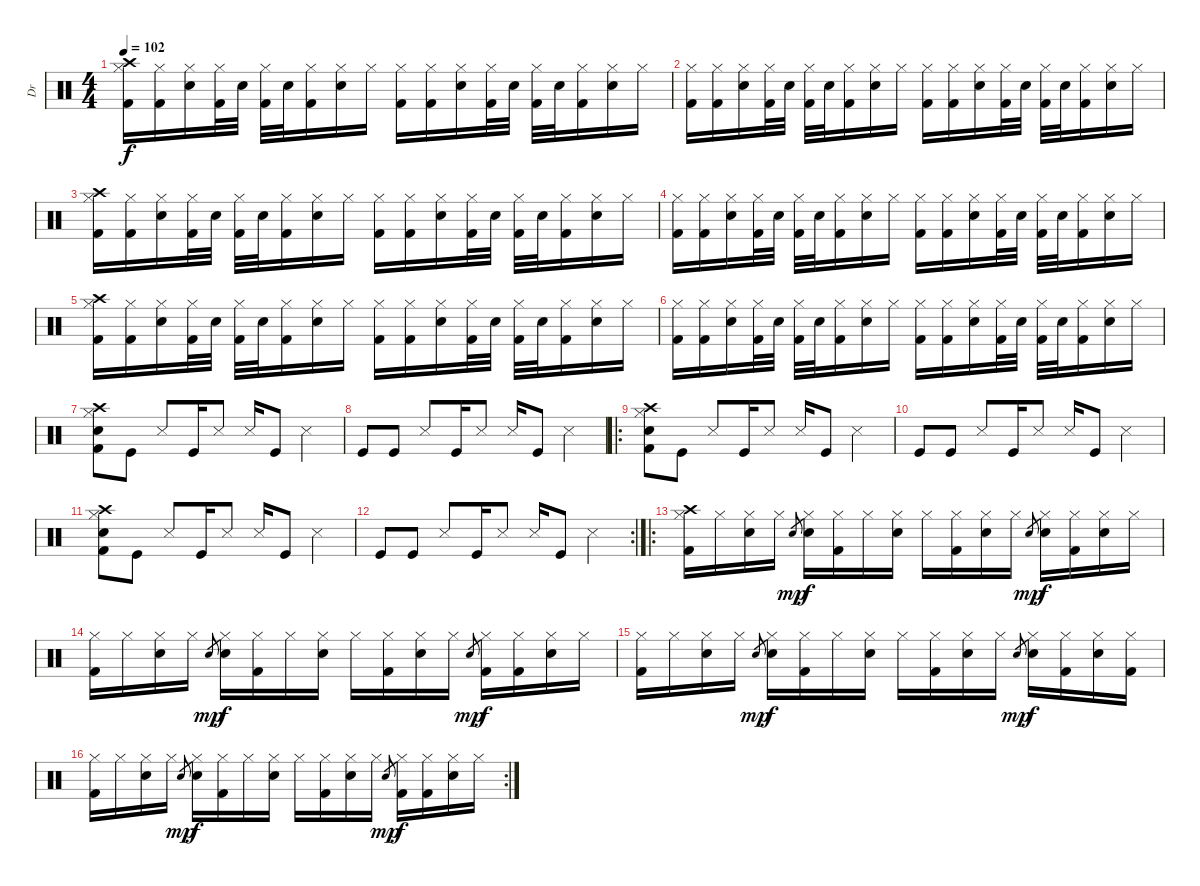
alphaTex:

\track ("Dr" "Dr") {instrument percussion}
\staff {score}
\articulation defaults
\ts (4 4)
\tempo 102
\clef neutral
\ks c
("Crash high (hit)" "Hi-Hat (closed)" "Kick (hit) 2").16{dy f} ("Hi-Hat (closed)" "Kick (hit) 2").16 ("Hi-Hat (closed)" "Electric Snare (hit)").16 ("Hi-Hat (closed)" "Kick (hit) 2").32 "Electric Snare (hit)".32 ("Hi-Hat (closed)" "Kick (hit) 2").32 "Electric Snare (hit)".32 ("Hi-Hat (closed)" "Kick (hit) 2").16 ("Hi-Hat (closed)" "Electric Snare (hit)").16 "Hi-Hat (closed)".16 ("Hi-Hat (closed)" "Kick (hit) 2").16 ("Hi-Hat (closed)" "Kick (hit) 2").16 ("Hi-Hat (closed)" "Electric Snare (hit)").16 ("Hi-Hat (closed)" "Kick (hit) 2").32 "Electric Snare (hit)".32 ("Hi-Hat (closed)" "Kick (hit) 2").32 "Electric Snare (hit)".32 ("Hi-Hat (closed)" "Kick (hit) 2").16 ("Hi-Hat (closed)" "Electric Snare (hit)").16 "Hi-Hat (closed)".16 |
("Hi-Hat (closed)" "Kick (hit) 2").16 ("Hi-Hat (closed)" "Kick (hit) 2").16 ("Hi-Hat (closed)" "Electric Snare (hit)").16 ("Hi-Hat (closed)" "Kick (hit) 2").32 "Electric Snare (hit)".32 ("Hi-Hat (closed)" "Kick (hit) 2").32 "Electric Snare (hit)".32 ("Hi-Hat (closed)" "Kick (hit) 2").16 ("Hi-Hat (closed)" "Electric Snare (hit)").16 "Hi-Hat (closed)".16 ("Hi-Hat (closed)" "Kick (hit) 2").16 ("Hi-Hat (closed)" "Kick (hit) 2").16 ("Hi-Hat (closed)" "Electric Snare (hit)").16 ("Hi-Hat (closed)" "Kick (hit) 2").32 "Electric Snare (hit)".32 ("Hi-Hat (closed)" "Kick (hit) 2").32 "Electric Snare (hit)".32 ("Hi-Hat (closed)" "Kick (hit) 2").16 ("Hi-Hat (closed)" "Electric Snare (hit)").16 "Hi-Hat (closed)".16 |
("Crash high (hit)" "Hi-Hat (closed)" "Kick (hit) 2").16 ("Hi-Hat (closed)" "Kick (hit) 2").16 ("Hi-Hat (closed)" "Electric Snare (hit)").16 ("Hi-Hat (closed)" "Kick (hit) 2").32 "Electric Snare (hit)".32 ("Hi-Hat (closed)" "Kick (hit) 2").32 "Electric Snare (hit)".32 ("Hi-Hat (closed)" "Kick (hit) 2").16 ("Hi-Hat (closed)" "Electric Snare (hit)").16 "Hi-Hat (closed)".16 ("Hi-Hat (closed)" "Kick (hit) 2").16 ("Hi-Hat (closed)" "Kick (hit) 2").16 ("Hi-Hat (closed)" "Electric Snare (hit)").16 ("Hi-Hat (closed)" "Kick (hit) 2").32 "Electric Snare (hit)".32 ("Hi-Hat (closed)" "Kick (hit) 2").32 "Electric Snare (hit)".32 ("Hi-Hat (closed)" "Kick (hit) 2").16 ("Hi-Hat (closed)" "Electric Snare (hit)").16 "Hi-Hat (closed)".16 |
("Hi-Hat (closed)" "Kick (hit) 2").16 ("Hi-Hat (closed)" "Kick (hit) 2").16 ("Hi-Hat (closed)" "Electric Snare (hit)").16 ("Hi-Hat (closed)" "Kick (hit) 2").32 "Electric Snare (hit)".32 ("Hi-Hat (closed)" "Kick (hit) 2").32 "Electric Snare (hit)".32 ("Hi-Hat (closed)" "Kick (hit) 2").16 ("Hi-Hat (closed)" "Electric Snare (hit)").16 "Hi-Hat (closed)".16 ("Hi-Hat (closed)" "Kick (hit) 2").16 ("Hi-Hat (closed)" "Kick (hit) 2").16 ("Hi-Hat (closed)" "Electric Snare (hit)").16 ("Hi-Hat (closed)" "Kick (hit) 2").32 "Electric Snare (hit)".32 ("Hi-Hat (closed)" "Kick (hit) 2").32 "Electric Snare (hit)".32 ("Hi-Hat (closed)" "Kick (hit) 2").16 ("Hi-Hat (closed)" "Electric Snare (hit)").16 "Hi-Hat (closed)".16 |
("Crash high (hit)" "Hi-Hat (closed)" "Kick (hit) 2").16 ("Hi-Hat (closed)" "Kick (hit) 2").16 ("Hi-Hat (closed)" "Electric Snare (hit)").16 ("Hi-Hat (closed)" "Kick (hit) 2").32 "Electric Snare (hit)".32 ("Hi-Hat (closed)" "Kick (hit) 2").32 "Electric Snare (hit)".32 ("Hi-Hat (closed)" "Kick (hit) 2").16 ("Hi-Hat (closed)" "Electric Snare (hit)").16 "Hi-Hat (closed)".16 ("Hi-Hat (closed)" "Kick (hit) 2").16 ("Hi-Hat (closed)" "Kick (hit) 2").16 ("Hi-Hat (closed)" "Electric Snare (hit)").16 ("Hi-Hat (closed)" "Kick (hit) 2").32 "Electric Snare (hit)".32 ("Hi-Hat (closed)" "Kick (hit) 2").32 "Electric Snare (hit)".32 ("Hi-Hat (closed)" "Kick (hit) 2").16 ("Hi-Hat (closed)" "Electric Snare (hit)").16 "Hi-Hat (closed)".16 |
("Hi-Hat (closed)" "Kick (hit) 2").16 ("Hi-Hat (closed)" "Kick (hit) 2").16 ("Hi-Hat (closed)" "Electric Snare (hit)").16 ("Hi-Hat (closed)" "Kick (hit) 2").32 "Electric Snare (hit)".32 ("Hi-Hat (closed)" "Kick (hit) 2").32 "Electric Snare (hit)".32 ("Hi-Hat (closed)" "Kick (hit) 2").16 ("Hi-Hat (closed)" "Electric Snare (hit)").16 "Hi-Hat (closed)".16 ("Hi-Hat (closed)" "Kick (hit) 2").16 ("Hi-Hat (closed)" "Kick (hit) 2").16 ("Hi-Hat (closed)" "Electric Snare (hit)").16 ("Hi-Hat (closed)" "Kick (hit) 2").32 "Electric Snare (hit)".32 ("Hi-Hat (closed)" "Kick (hit) 2").32 "Electric Snare (hit)".32 ("Hi-Hat (closed)" "Kick (hit) 2").16 ("Hi-Hat (closed)" "Electric Snare (hit)").16 "Hi-Hat (closed)".16 |
("Crash high (hit)" "Hi-Hat (closed)" "Electric Snare (hit)" "Kick (hit) 2").8 "Kick (hit)".8 "Snare (side stick) 3".8 "Kick (hit)".16 "Snare (side stick) 3".8 "Snare (side stick) 3".16 "Kick (hit)".8 "Snare (side stick) 3".4 |
"Kick (hit)".8 "Kick (hit)".8 "Snare (side stick) 3".8 "Kick (hit)".16 "Snare (side stick) 3".8 "Snare (side stick) 3".16 "Kick (hit)".8 "Snare (side stick) 3".4 |
\ro
("Crash high (hit)" "Hi-Hat (closed)" "Electric Snare (hit)" "Kick (hit) 2").8 "Kick (hit)".8 "Snare (side stick) 3".8 "Kick (hit)".16 "Snare (side stick) 3".8 "Snare (side stick) 3".16 "Kick (hit)".8 "Snare (side stick) 3".4 |
"Kick (hit)".8 "Kick (hit)".8 "Snare (side stick) 3".8 "Kick (hit)".16 "Snare (side stick) 3".8 "Snare (side stick) 3".16 "Kick (hit)".8 "Snare (side stick) 3".4 |
("Crash high (hit)" "Hi-Hat (closed)" "Electric Snare (hit)" "Kick (hit) 2").8 "Kick (hit)".8 "Snare (side stick) 3".8 "Kick (hit)".16 "Snare (side stick) 3".8 "Snare (side stick) 3".16 "Kick (hit)".8 "Snare (side stick) 3".4 |
\rc 2 "Kick (hit)".8 "Kick (hit)".8 "Snare (side stick) 3".8 "Kick (hit)".16 "Snare (side stick) 3".8 "Snare (side stick) 3".16 "Kick (hit)".8 "Snare (side stick) 3".4
|
\ro
("Crash high (hit)" "Hi-Hat (closed)" "Kick (hit) 2").16 "Hi-Hat (closed)".16 ("Hi-Hat (closed)" "Electric Snare (hit)").16 "Hi-Hat (closed)".16 "Electric Snare (hit)".8{gr dy mp} ("Hi-Hat (closed)" "Electric Snare (hit)").16{dy f} ("Hi-Hat (closed)" "Kick (hit) 2").16 "Hi-Hat (closed)".16 ("Hi-Hat (closed)" "Electric Snare (hit)").16 "Hi-Hat (closed)".16 ("Hi-Hat (closed)" "Kick (hit) 2").16 ("Hi-Hat (closed)" "Electric Snare (hit)").16 "Hi-Hat (closed)".16 "Electric Snare (hit)".8{gr dy mp} ("Hi-Hat (closed)" "Electric Snare (hit)").16{dy f} ("Hi-Hat (closed)" "Kick (hit) 2").16 ("Hi-Hat (closed)" "Electric Snare (hit)").16 "Hi-Hat (closed)".16 |
("Hi-Hat (closed)" "Kick (hit) 2").16 "Hi-Hat (closed)".16 ("Hi-Hat (closed)" "Electric Snare (hit)").16 "Hi-Hat (closed)".16 "Electric Snare (hit)".8{gr dy mp} ("Hi-Hat (closed)" "Electric Snare (hit)").16{dy f} ("Hi-Hat (closed)" "Kick (hit) 2").16 "Hi-Hat (closed)".16 ("Hi-Hat (closed)" "Electric Snare (hit)").16 "Hi-Hat (closed)".16 ("Hi-Hat (closed)" "Kick (hit) 2").16 ("Hi-Hat (closed)" "Electric Snare (hit)").16 "Hi-Hat (closed)".16 "Electric Snare (hit)".8{gr dy mp} ("Hi-Hat (closed)" "Kick (hit) 2").16{dy f} ("Hi-Hat (closed)" "Kick (hit) 2").16 ("Hi-Hat (closed)" "Electric Snare (hit)").16 "Hi-Hat (closed)".16 |
("Hi-Hat (closed)" "Kick (hit) 2").16 "Hi-Hat (closed)".16 ("Hi-Hat (closed)" "Electric Snare (hit)").16 "Hi-Hat (closed)".16 "Electric Snare (hit)".8{gr dy mp} ("Hi-Hat (closed)" "Electric Snare (hit)").16{dy f} ("Hi-Hat (closed)" "Kick (hit) 2").16 "Hi-Hat (closed)".16 ("Hi-Hat (closed)" "Electric Snare (hit)").16 "Hi-Hat (closed)".16 ("Hi-Hat (closed)" "Kick (hit) 2").16 ("Hi-Hat (closed)" "Electric Snare (hit)").16 "Hi-Hat (closed)".16 "Electric Snare (hit)".8{gr dy mp} ("Hi-Hat (closed)" "Electric Snare (hit)").16{dy f} ("Hi-Hat (closed)" "Kick (hit) 2").16 ("Hi-Hat (closed)" "Electric Snare (hit)").16 ("Hi-Hat (closed)" "Kick (hit) 2").16 |
\rc 2
("Hi-Hat (closed)" "Kick (hit) 2").16 "Hi-Hat (closed)".16 ("Hi-Hat (closed)" "Electric Snare (hit)").16 "Hi-Hat (closed)".16 "Electric Snare (hit)".8{gr dy mp} ("Hi-Hat (closed)" "Electric Snare (hit)").16{dy f} ("Hi-Hat (closed)" "Kick (hit) 2").16 "Hi-Hat (closed)".16 ("Hi-Hat (closed)" "Electric Snare (hit)").16 "Hi-Hat (closed)".16 ("Hi-Hat (closed)" "Kick (hit) 2").16 ("Hi-Hat (closed)" "Electric Snare (hit)").16 "Hi-Hat (closed)".16 "Electric Snare (hit)".8{gr dy mp} ("Hi-Hat (closed)" "Kick (hit) 2").16{dy f} ("Hi-Hat (closed)" "Kick (hit) 2").16 ("Hi-Hat (closed)" "Electric Snare (hit)").16 "Hi-Hat (closed)".16
